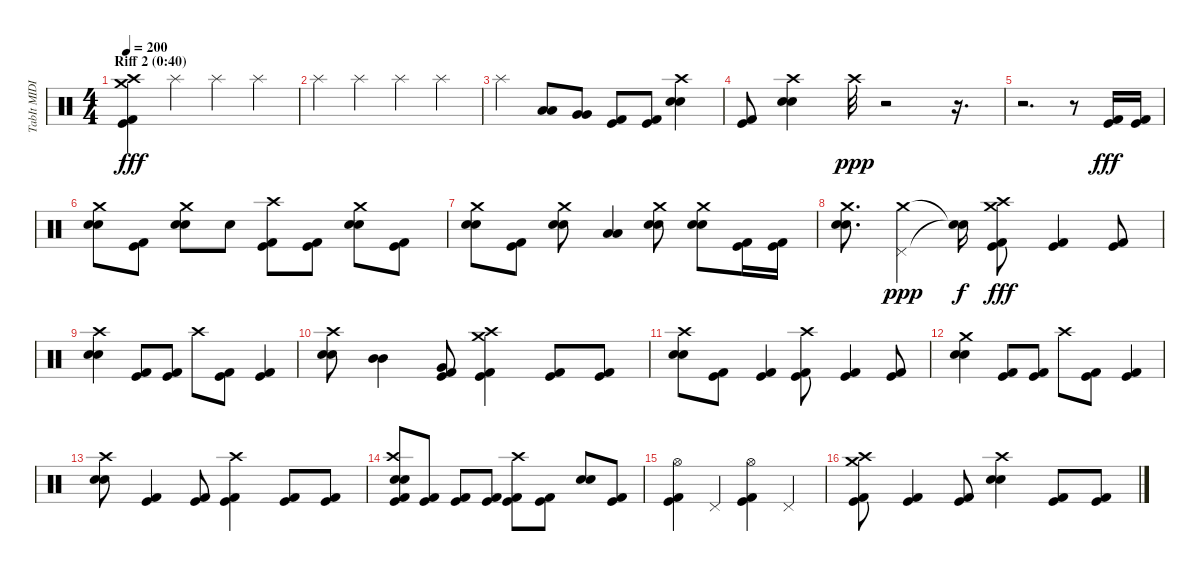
\track ("TabIt MIDI - Track 4" "TabIt MIDI") {instrument percussion}
\staff {score}
\articulation defaults
\ts (4 4)
\section ("" "Riff 2 (0:40)")
\tempo 200
\clef neutral
\ks c
("Kick (hit)" "Kick (hit) 2" "Crash medium (hit)" "Crash high (hit)").4{dy fff} "Splash (hit)".4 "Splash (hit)".4 "Splash (hit)".4 |
"Splash (hit)".4 "Splash (hit)".4 "Splash (hit)".4 "Splash (hit)".4 |
"Splash (hit)".4 ("Low Tom (hit)" "Low Tom (hit)").8 ("Very Low Tom (hit)" "Very Low Tom (hit)").8 ("Kick (hit)" "Kick (hit) 2").8 ("Kick (hit)" "Kick (hit) 2").8 ("Electric Snare (hit)" "Electric Snare (hit)" "Crash high (hit)").4 |
("Kick (hit)" "Kick (hit) 2").8 ("Electric Snare (hit)" "Electric Snare (hit)" "Crash high (hit)").4 "Crash high (hit)".32{dy ppp} r.2 r.16{d} |
r.2{d} r.8 ("Kick (hit)" "Kick (hit) 2").16{dy fff} ("Kick (hit)" "Kick (hit) 2").16 |
("Electric Snare (hit)" "Electric Snare (hit)" "Crash medium (hit)").8 ("Kick (hit)" "Kick (hit) 2").8 ("Electric Snare (hit)" "Electric Snare (hit)" "Crash medium (hit)").8 "Electric Snare (hit)".8 ("Kick (hit)" "Kick (hit) 2" "Crash high (hit)").8 ("Kick (hit)" "Kick (hit) 2").8 ("Electric Snare (hit)" "Electric Snare (hit)" "Crash medium (hit)").8 ("Kick (hit)" "Kick (hit) 2").8 |
("Electric Snare (hit)" "Electric Snare (hit)" "Crash medium (hit)").8 ("Kick (hit)" "Kick (hit) 2").8 ("Electric Snare (hit)" "Electric Snare (hit)" "Crash medium (hit)").8 ("Low Tom (hit)" "Low Tom (hit)").4 ("Electric Snare (hit)" "Electric Snare (hit)" "Crash medium (hit)").8 ("Electric Snare (hit)" "Electric Snare (hit)" "Crash medium (hit)").8 ("Kick (hit)" "Kick (hit) 2").16 ("Kick (hit)" "Kick (hit) 2").16 |
("Electric Snare (hit)" "Electric Snare (hit)" "Crash medium (hit)").8{d} ("Crash medium (hit)" "Pedal Hi-Hat (hit)").4{dy ppp} ("Snare (hit)"{t} "Snare (hit)"{t}).16{dy f} ("Kick (hit)" "Kick (hit) 2" "Crash medium (hit)" "Crash high (hit)").8{dy fff} ("Kick (hit)" "Kick (hit) 2").4 ("Kick (hit)" "Kick (hit) 2").8 |
("Electric Snare (hit)" "Electric Snare (hit)" "Crash high (hit)").4 ("Kick (hit)" "Kick (hit) 2").8 ("Kick (hit)" "Kick (hit) 2").8 "Crash high (hit)".8 ("Kick (hit)" "Kick (hit) 2").8 ("Kick (hit)" "Kick (hit) 2").4 |
("Electric Snare (hit)" "Electric Snare (hit)" "Crash high (hit)").8 ("Mid Tom (hit)" "Mid Tom (hit)").4 ("Kick (hit)" "Kick (hit) 2" "Very Low Tom (hit)").8 ("Kick (hit)" "Kick (hit) 2" "Crash medium (hit)" "Crash high (hit)").4 ("Kick (hit)" "Kick (hit) 2").8 ("Kick (hit)" "Kick (hit) 2").8 |
("Electric Snare (hit)" "Electric Snare (hit)" "Crash high (hit)").8 ("Kick (hit)" "Kick (hit) 2").8 ("Kick (hit)" "Kick (hit) 2").4 ("Kick (hit)" "Kick (hit) 2" "Crash high (hit)").8 ("Kick (hit)" "Kick (hit) 2").4 ("Kick (hit)" "Kick (hit) 2").8 |
("Electric Snare (hit)" "Electric Snare (hit)" "Crash medium (hit)").4 ("Kick (hit)" "Kick (hit) 2").8 ("Kick (hit)" "Kick (hit) 2").8 "Crash high (hit)".8 ("Kick (hit)" "Kick (hit) 2").8 ("Kick (hit)" "Kick (hit) 2").4 |
("Electric Snare (hit)" "Electric Snare (hit)" "Crash high (hit)").8 ("Kick (hit)" "Kick (hit) 2").4 ("Kick (hit)" "Kick (hit) 2").8 ("Kick (hit)" "Kick (hit) 2" "Crash high (hit)").4 ("Kick (hit)" "Kick (hit) 2").8 ("Kick (hit)" "Kick (hit) 2").8 |
("Kick (hit)" "Kick (hit) 2" "Electric Snare (hit)" "Electric Snare (hit)" "Crash high (hit)").8 ("Kick (hit)" "Kick (hit) 2").8 ("Kick (hit)" "Kick (hit) 2").8 ("Kick (hit)" "Kick (hit) 2").8 ("Kick (hit)" "Kick (hit) 2" "Crash high (hit)").8 ("Kick (hit)" "Kick (hit) 2").8 ("Electric Snare (hit)" "Electric Snare (hit)").8 ("Kick (hit)" "Kick (hit) 2").8 |
("Kick (hit)" "Kick (hit) 2" "Hi-Hat (open)").4 "Pedal Hi-Hat (hit)".4 ("Kick (hit)" "Kick (hit) 2" "Hi-Hat (open)").4 "Pedal Hi-Hat (hit)".4 |
("Kick (hit)" "Kick (hit) 2" "Crash medium (hit)" "Crash high (hit)").8 ("Kick (hit)" "Kick (hit) 2").4 ("Kick (hit)" "Kick (hit) 2").8 ("Electric Snare (hit)" "Electric Snare (hit)" "Crash high (hit)").4 ("Kick (hit)" "Kick (hit) 2").8 ("Kick (hit)" "Kick (hit) 2").8
